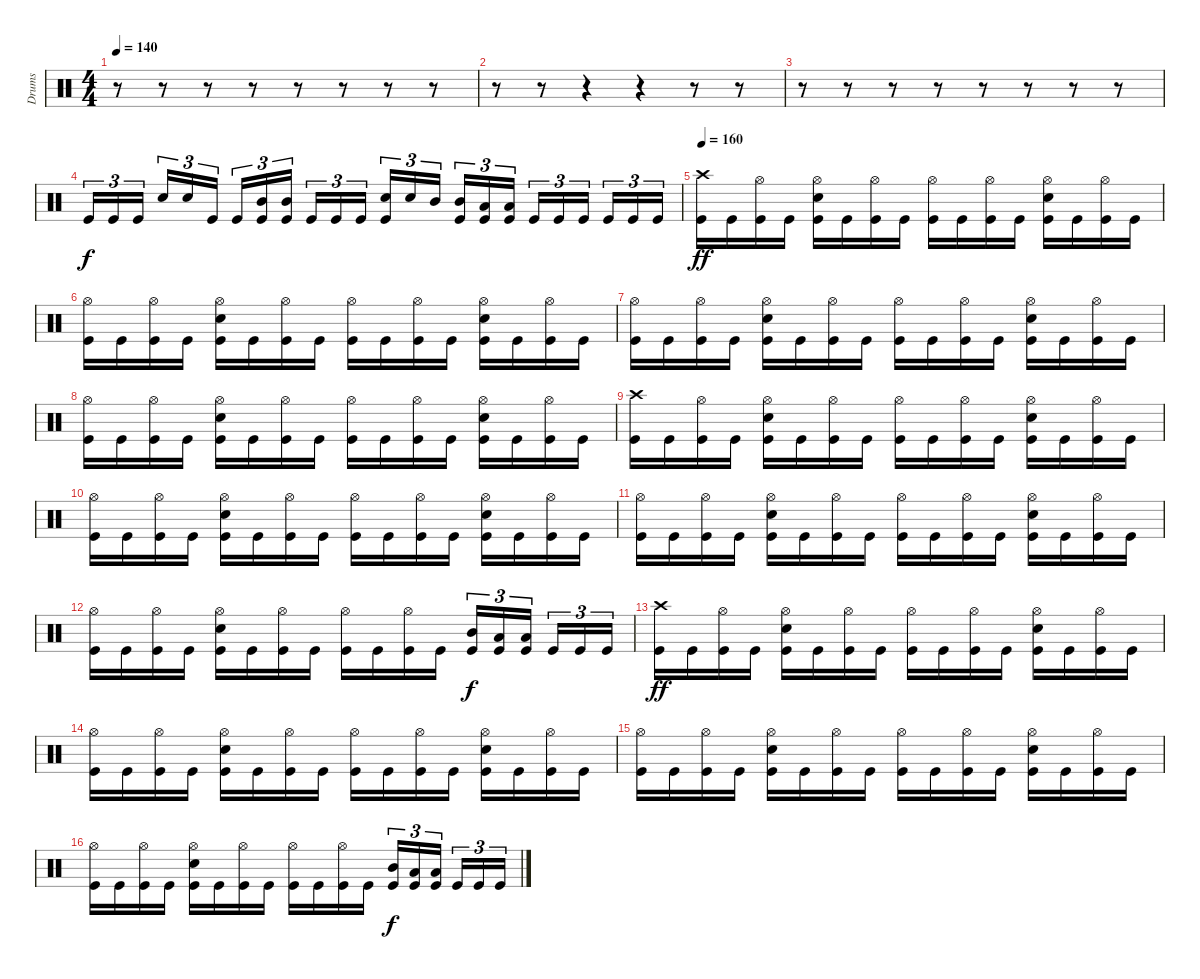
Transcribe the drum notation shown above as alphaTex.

\track ("Drums" "Drums") {instrument percussion}
\staff {score}
\articulation defaults
\ts (4 4)
\tempo 140
\clef neutral
\ks c
r.8{dy ff} r.8 r.8 r.8 r.8 r.8 r.8 r.8 |
r.8 r.8 r.4 r.4 r.8 r.8 |
r.8 r.8 r.8 r.8 r.8 r.8 r.8 r.8 |
"Kick (hit)".16{tu (3 2) dy f} "Kick (hit)".16{tu (3 2)} "Kick (hit)".16{tu (3 2)} "Snare (hit) 2".16{tu (3 2)} "Snare (hit) 2".16{tu (3 2)} "Kick (hit)".16{tu (3 2)} "Kick (hit)".16{tu (3 2)} ("Mid Tom (hit)" "Kick (hit)").16{tu (3 2)} ("Mid Tom (hit)" "Kick (hit)").16{tu (3 2)} "Kick (hit)".16{tu (3 2)} "Kick (hit)".16{tu (3 2)} "Kick (hit)".16{tu (3 2)} ("Snare (hit) 2" "Kick (hit)").16{tu (3 2)} "Snare (hit) 2".16{tu (3 2)} "Mid Tom (hit)".16{tu (3 2)} ("Mid Tom (hit)" "Kick (hit)").16{tu (3 2)} ("Low Tom (hit)" "Kick (hit)").16{tu (3 2)} ("Low Tom (hit)" "Kick (hit)").16{tu (3 2)} "Kick (hit)".16{tu (3 2)} "Kick (hit)".16{tu (3 2)} "Kick (hit)".16{tu (3 2)} "Kick (hit)".16{tu (3 2)} "Kick (hit)".16{tu (3 2)} "Kick (hit)".16{tu (3 2)} |
\tempo 160
("Crash high (hit)" "Kick (hit)").16{dy ff} "Kick (hit)".16 ("Hi-Hat (open)" "Kick (hit)").16 "Kick (hit)".16 ("Hi-Hat (open)" "Snare (hit) 2" "Kick (hit)").16 "Kick (hit)".16 ("Hi-Hat (open)" "Kick (hit)").16 "Kick (hit)".16 ("Hi-Hat (open)" "Kick (hit)").16 "Kick (hit)".16 ("Hi-Hat (open)" "Kick (hit)").16 "Kick (hit)".16 ("Hi-Hat (open)" "Snare (hit) 2" "Kick (hit)").16 "Kick (hit)".16 ("Hi-Hat (open)" "Kick (hit)").16 "Kick (hit)".16 |
("Hi-Hat (open)" "Kick (hit)").16 "Kick (hit)".16 ("Hi-Hat (open)" "Kick (hit)").16 "Kick (hit)".16 ("Hi-Hat (open)" "Snare (hit) 2" "Kick (hit)").16 "Kick (hit)".16 ("Hi-Hat (open)" "Kick (hit)").16 "Kick (hit)".16 ("Hi-Hat (open)" "Kick (hit)").16 "Kick (hit)".16 ("Hi-Hat (open)" "Kick (hit)").16 "Kick (hit)".16 ("Hi-Hat (open)" "Snare (hit) 2" "Kick (hit)").16 "Kick (hit)".16 ("Hi-Hat (open)" "Kick (hit)").16 "Kick (hit)".16 |
("Hi-Hat (open)" "Kick (hit)").16 "Kick (hit)".16 ("Hi-Hat (open)" "Kick (hit)").16 "Kick (hit)".16 ("Hi-Hat (open)" "Snare (hit) 2" "Kick (hit)").16 "Kick (hit)".16 ("Hi-Hat (open)" "Kick (hit)").16 "Kick (hit)".16 ("Hi-Hat (open)" "Kick (hit)").16 "Kick (hit)".16 ("Hi-Hat (open)" "Kick (hit)").16 "Kick (hit)".16 ("Hi-Hat (open)" "Snare (hit) 2" "Kick (hit)").16 "Kick (hit)".16 ("Hi-Hat (open)" "Kick (hit)").16 "Kick (hit)".16 |
("Hi-Hat (open)" "Kick (hit)").16 "Kick (hit)".16 ("Hi-Hat (open)" "Kick (hit)").16 "Kick (hit)".16 ("Hi-Hat (open)" "Snare (hit) 2" "Kick (hit)").16 "Kick (hit)".16 ("Hi-Hat (open)" "Kick (hit)").16 "Kick (hit)".16 ("Hi-Hat (open)" "Kick (hit)").16 "Kick (hit)".16 ("Hi-Hat (open)" "Kick (hit)").16 "Kick (hit)".16 ("Hi-Hat (open)" "Snare (hit) 2" "Kick (hit)").16 "Kick (hit)".16 ("Hi-Hat (open)" "Kick (hit)").16 "Kick (hit)".16 |
("Crash high (hit)" "Kick (hit)").16 "Kick (hit)".16 ("Hi-Hat (open)" "Kick (hit)").16 "Kick (hit)".16 ("Hi-Hat (open)" "Snare (hit) 2" "Kick (hit)").16 "Kick (hit)".16 ("Hi-Hat (open)" "Kick (hit)").16 "Kick (hit)".16 ("Hi-Hat (open)" "Kick (hit)").16 "Kick (hit)".16 ("Hi-Hat (open)" "Kick (hit)").16 "Kick (hit)".16 ("Hi-Hat (open)" "Snare (hit) 2" "Kick (hit)").16 "Kick (hit)".16 ("Hi-Hat (open)" "Kick (hit)").16 "Kick (hit)".16 |
("Hi-Hat (open)" "Kick (hit)").16 "Kick (hit)".16 ("Hi-Hat (open)" "Kick (hit)").16 "Kick (hit)".16 ("Hi-Hat (open)" "Snare (hit) 2" "Kick (hit)").16 "Kick (hit)".16 ("Hi-Hat (open)" "Kick (hit)").16 "Kick (hit)".16 ("Hi-Hat (open)" "Kick (hit)").16 "Kick (hit)".16 ("Hi-Hat (open)" "Kick (hit)").16 "Kick (hit)".16 ("Hi-Hat (open)" "Snare (hit) 2" "Kick (hit)").16 "Kick (hit)".16 ("Hi-Hat (open)" "Kick (hit)").16 "Kick (hit)".16 |
("Hi-Hat (open)" "Kick (hit)").16 "Kick (hit)".16 ("Hi-Hat (open)" "Kick (hit)").16 "Kick (hit)".16 ("Hi-Hat (open)" "Snare (hit) 2" "Kick (hit)").16 "Kick (hit)".16 ("Hi-Hat (open)" "Kick (hit)").16 "Kick (hit)".16 ("Hi-Hat (open)" "Kick (hit)").16 "Kick (hit)".16 ("Hi-Hat (open)" "Kick (hit)").16 "Kick (hit)".16 ("Hi-Hat (open)" "Snare (hit) 2" "Kick (hit)").16 "Kick (hit)".16 ("Hi-Hat (open)" "Kick (hit)").16 "Kick (hit)".16 |
("Hi-Hat (open)" "Kick (hit)").16 "Kick (hit)".16 ("Hi-Hat (open)" "Kick (hit)").16 "Kick (hit)".16 ("Hi-Hat (open)" "Snare (hit) 2" "Kick (hit)").16 "Kick (hit)".16 ("Hi-Hat (open)" "Kick (hit)").16 "Kick (hit)".16 ("Hi-Hat (open)" "Kick (hit)").16 "Kick (hit)".16 ("Hi-Hat (open)" "Kick (hit)").16 "Kick (hit)".16 ("Mid Tom (hit)" "Kick (hit)").16{tu (3 2) dy f} ("Low Tom (hit)" "Kick (hit)").16{tu (3 2)} ("Low Tom (hit)" "Kick (hit)").16{tu (3 2)} "Kick (hit)".16{tu (3 2)} "Kick (hit)".16{tu (3 2)} "Kick (hit)".16{tu (3 2)} |
("Crash high (hit)" "Kick (hit)").16{dy ff} "Kick (hit)".16 ("Hi-Hat (open)" "Kick (hit)").16 "Kick (hit)".16 ("Hi-Hat (open)" "Snare (hit) 2" "Kick (hit)").16 "Kick (hit)".16 ("Hi-Hat (open)" "Kick (hit)").16 "Kick (hit)".16 ("Hi-Hat (open)" "Kick (hit)").16 "Kick (hit)".16 ("Hi-Hat (open)" "Kick (hit)").16 "Kick (hit)".16 ("Hi-Hat (open)" "Snare (hit) 2" "Kick (hit)").16 "Kick (hit)".16 ("Hi-Hat (open)" "Kick (hit)").16 "Kick (hit)".16 |
("Hi-Hat (open)" "Kick (hit)").16 "Kick (hit)".16 ("Hi-Hat (open)" "Kick (hit)").16 "Kick (hit)".16 ("Hi-Hat (open)" "Snare (hit) 2" "Kick (hit)").16 "Kick (hit)".16 ("Hi-Hat (open)" "Kick (hit)").16 "Kick (hit)".16 ("Hi-Hat (open)" "Kick (hit)").16 "Kick (hit)".16 ("Hi-Hat (open)" "Kick (hit)").16 "Kick (hit)".16 ("Hi-Hat (open)" "Snare (hit) 2" "Kick (hit)").16 "Kick (hit)".16 ("Hi-Hat (open)" "Kick (hit)").16 "Kick (hit)".16 |
("Hi-Hat (open)" "Kick (hit)").16 "Kick (hit)".16 ("Hi-Hat (open)" "Kick (hit)").16 "Kick (hit)".16 ("Hi-Hat (open)" "Snare (hit) 2" "Kick (hit)").16 "Kick (hit)".16 ("Hi-Hat (open)" "Kick (hit)").16 "Kick (hit)".16 ("Hi-Hat (open)" "Kick (hit)").16 "Kick (hit)".16 ("Hi-Hat (open)" "Kick (hit)").16 "Kick (hit)".16 ("Hi-Hat (open)" "Snare (hit) 2" "Kick (hit)").16 "Kick (hit)".16 ("Hi-Hat (open)" "Kick (hit)").16 "Kick (hit)".16 |
("Hi-Hat (open)" "Kick (hit)").16 "Kick (hit)".16 ("Hi-Hat (open)" "Kick (hit)").16 "Kick (hit)".16 ("Hi-Hat (open)" "Snare (hit) 2" "Kick (hit)").16 "Kick (hit)".16 ("Hi-Hat (open)" "Kick (hit)").16 "Kick (hit)".16 ("Hi-Hat (open)" "Kick (hit)").16 "Kick (hit)".16 ("Hi-Hat (open)" "Kick (hit)").16 "Kick (hit)".16 ("Mid Tom (hit)" "Kick (hit)").16{tu (3 2) dy f} ("Low Tom (hit)" "Kick (hit)").16{tu (3 2)} ("Low Tom (hit)" "Kick (hit)").16{tu (3 2)} "Kick (hit)".16{tu (3 2)} "Kick (hit)".16{tu (3 2)} "Kick (hit)".16{tu (3 2)}
